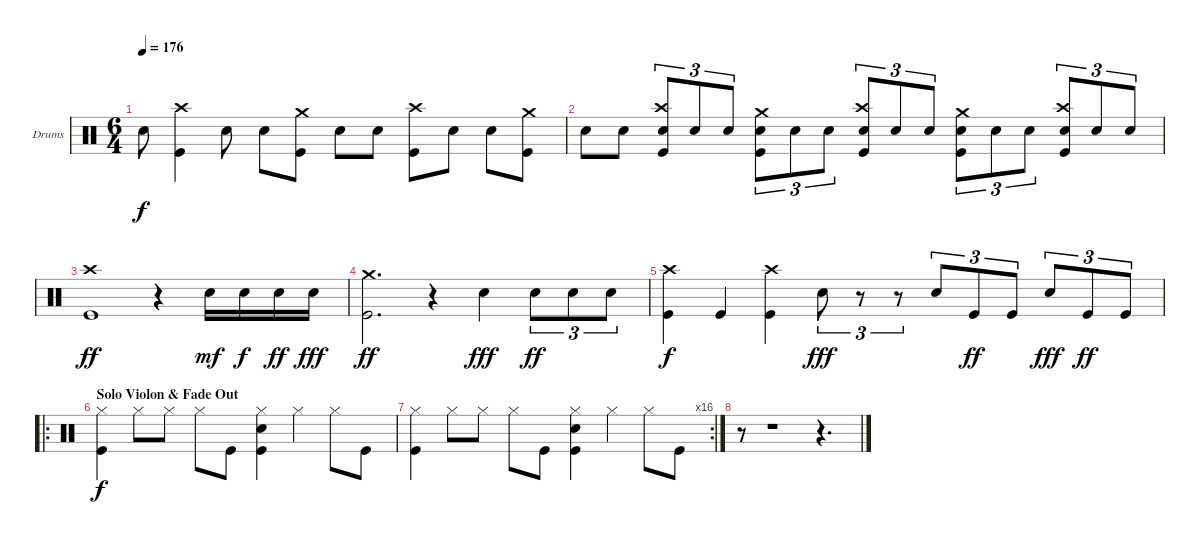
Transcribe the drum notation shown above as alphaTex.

\bracketExtendMode groupsimilarinstruments
\firstSystemTrackNameOrientation horizontal
\otherSystemsTrackNameOrientation horizontal
\track ("Drumkit" "Drums") {instrument percussion}
\staff {score}
\articulation defaults
\ts (6 4)
\tempo 176
\clef neutral
\ks c "Snare (hit) 2".8{dy f}
("Crash high (hit)" "Kick (hit)").4 "Snare (hit) 2".8 "Snare (hit) 2".8 ("Crash medium (hit)" "Kick (hit)").8 "Snare (hit) 2".8 "Snare (hit) 2".8 ("Crash high (hit)" "Kick (hit)").8 "Snare (hit) 2".8 "Snare (hit) 2".8 ("Crash medium (hit)" "Kick (hit)").8 |
"Snare (hit) 2".8 "Snare (hit) 2".8 ("Crash high (hit)" "Snare (hit) 2" "Kick (hit)").8{tu (3 2)} "Snare (hit) 2".8{tu (3 2)} "Snare (hit) 2".8{tu (3 2)} ("Crash medium (hit)" "Snare (hit) 2" "Kick (hit)").8{tu (3 2)} "Snare (hit) 2".8{tu (3 2)} "Snare (hit) 2".8{tu (3 2)} ("Crash high (hit)" "Snare (hit) 2" "Kick (hit)").8{tu (3 2)} "Snare (hit) 2".8{tu (3 2)} "Snare (hit) 2".8{tu (3 2)} ("Crash medium (hit)" "Snare (hit) 2" "Kick (hit)").8{tu (3 2)} "Snare (hit) 2".8{tu (3 2)} "Snare (hit) 2".8{tu (3 2)} ("Crash high (hit)" "Snare (hit) 2" "Kick (hit)").8{tu (3 2)} "Snare (hit) 2".8{tu (3 2)} "Snare (hit) 2".8{tu (3 2)} |
("Crash high (hit)" "Kick (hit)").1{dy ff} r.4 "Snare (hit) 2".16{dy mf} "Snare (hit) 2".16{dy f} "Snare (hit) 2".16{dy ff} "Snare (hit) 2".16{dy fff} |
("Crash medium (hit)" "Kick (hit)").2{d dy ff} r.4 "Snare (hit) 2".4{dy fff} "Snare (hit) 2".8{tu (3 2) dy ff} "Snare (hit) 2".8{tu (3 2)} "Snare (hit) 2".8{tu (3 2)} |
("Crash high (hit)" "Kick (hit)").4{dy f} "Kick (hit)".4 ("Crash high (hit)" "Kick (hit)").4 "Snare (hit) 2".8{tu (3 2) dy fff} r.8{tu (3 2)} r.8{tu (3 2)} "Snare (hit) 2".8{tu (3 2)} "Kick (hit)".8{tu (3 2) dy ff} "Kick (hit)".8{tu (3 2)} "Snare (hit) 2".8{tu (3 2) dy fff} "Kick (hit)".8{tu (3 2) dy ff} "Kick (hit)".8{tu (3 2)} |
\ro
\section ("" "Solo Violon & Fade Out")
("Hi-Hat (closed)" "Kick (hit)").4{dy f} "Hi-Hat (closed)".8 "Hi-Hat (closed)".8 "Hi-Hat (closed)".8 "Kick (hit)".8 ("Hi-Hat (closed)" "Snare (hit) 2" "Kick (hit)").4 "Hi-Hat (closed)".4 "Hi-Hat (closed)".8 "Kick (hit)".8 |
\rc 16
("Hi-Hat (closed)" "Kick (hit)").4 "Hi-Hat (closed)".8 "Hi-Hat (closed)".8 "Hi-Hat (closed)".8 "Kick (hit)".8 ("Hi-Hat (closed)" "Snare (hit) 2" "Kick (hit)").4 "Hi-Hat (closed)".4 "Hi-Hat (closed)".8 "Kick (hit)".8 |
r.8 r.1 r.4{d}
